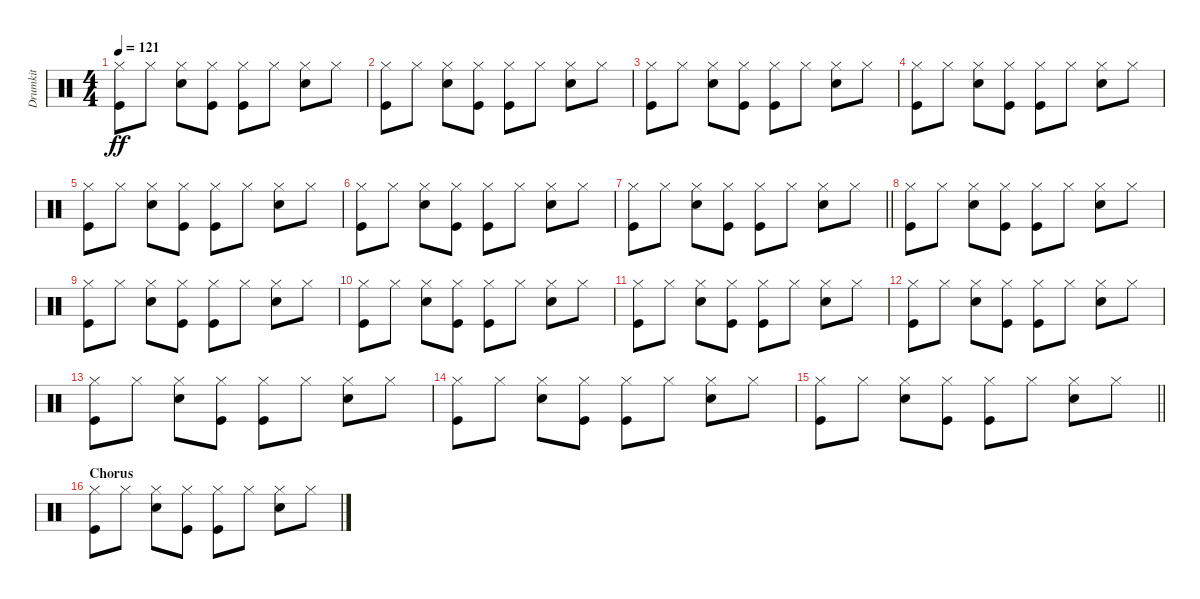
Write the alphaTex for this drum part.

\track ("Drumkit" "Drumkit") {instrument percussion}
\staff {score}
\articulation defaults
\ts (4 4)
\tempo 121
\clef neutral
\ks c
("Kick (hit)" "Hi-Hat (closed)").8{dy ff} "Hi-Hat (closed)".8 ("Hi-Hat (closed)" "Snare (hit) 2").8 ("Kick (hit)" "Hi-Hat (closed)").8 ("Hi-Hat (closed)" "Kick (hit)").8 "Hi-Hat (closed)".8 ("Hi-Hat (closed)" "Snare (hit) 2").8 "Hi-Hat (closed)".8 |
("Kick (hit)" "Hi-Hat (closed)").8 "Hi-Hat (closed)".8 ("Hi-Hat (closed)" "Snare (hit) 2").8 ("Kick (hit)" "Hi-Hat (closed)").8 ("Hi-Hat (closed)" "Kick (hit)").8 "Hi-Hat (closed)".8 ("Hi-Hat (closed)" "Snare (hit) 2").8 "Hi-Hat (closed)".8 |
("Kick (hit)" "Hi-Hat (closed)").8 "Hi-Hat (closed)".8 ("Hi-Hat (closed)" "Snare (hit) 2").8 ("Kick (hit)" "Hi-Hat (closed)").8 ("Hi-Hat (closed)" "Kick (hit)").8 "Hi-Hat (closed)".8 ("Hi-Hat (closed)" "Snare (hit) 2").8 "Hi-Hat (closed)".8 |
("Kick (hit)" "Hi-Hat (closed)").8 "Hi-Hat (closed)".8 ("Hi-Hat (closed)" "Snare (hit) 2").8 ("Kick (hit)" "Hi-Hat (closed)").8 ("Hi-Hat (closed)" "Kick (hit)").8 "Hi-Hat (closed)".8 ("Hi-Hat (closed)" "Snare (hit) 2").8 "Hi-Hat (closed)".8 |
("Kick (hit)" "Hi-Hat (closed)").8 "Hi-Hat (closed)".8 ("Hi-Hat (closed)" "Snare (hit) 2").8 ("Kick (hit)" "Hi-Hat (closed)").8 ("Hi-Hat (closed)" "Kick (hit)").8 "Hi-Hat (closed)".8 ("Hi-Hat (closed)" "Snare (hit) 2").8 "Hi-Hat (closed)".8 |
("Kick (hit)" "Hi-Hat (closed)").8 "Hi-Hat (closed)".8 ("Hi-Hat (closed)" "Snare (hit) 2").8 ("Kick (hit)" "Hi-Hat (closed)").8 ("Hi-Hat (closed)" "Kick (hit)").8 "Hi-Hat (closed)".8 ("Hi-Hat (closed)" "Snare (hit) 2").8 "Hi-Hat (closed)".8 |
\barLineRight lightlight
("Kick (hit)" "Hi-Hat (closed)").8 "Hi-Hat (closed)".8 ("Hi-Hat (closed)" "Snare (hit) 2").8 ("Kick (hit)" "Hi-Hat (closed)").8 ("Hi-Hat (closed)" "Kick (hit)").8 "Hi-Hat (closed)".8 ("Hi-Hat (closed)" "Snare (hit) 2").8 "Hi-Hat (closed)".8 |
("Kick (hit)" "Hi-Hat (closed)").8 "Hi-Hat (closed)".8 ("Hi-Hat (closed)" "Snare (hit) 2").8 ("Kick (hit)" "Hi-Hat (closed)").8 ("Hi-Hat (closed)" "Kick (hit)").8 "Hi-Hat (closed)".8 ("Hi-Hat (closed)" "Snare (hit) 2").8 "Hi-Hat (closed)".8 |
("Kick (hit)" "Hi-Hat (closed)").8 "Hi-Hat (closed)".8 ("Hi-Hat (closed)" "Snare (hit) 2").8 ("Kick (hit)" "Hi-Hat (closed)").8 ("Hi-Hat (closed)" "Kick (hit)").8 "Hi-Hat (closed)".8 ("Hi-Hat (closed)" "Snare (hit) 2").8 "Hi-Hat (closed)".8 |
("Kick (hit)" "Hi-Hat (closed)").8 "Hi-Hat (closed)".8 ("Hi-Hat (closed)" "Snare (hit) 2").8 ("Kick (hit)" "Hi-Hat (closed)").8 ("Hi-Hat (closed)" "Kick (hit)").8 "Hi-Hat (closed)".8 ("Hi-Hat (closed)" "Snare (hit) 2").8 "Hi-Hat (closed)".8 |
("Kick (hit)" "Hi-Hat (closed)").8 "Hi-Hat (closed)".8 ("Hi-Hat (closed)" "Snare (hit) 2").8 ("Kick (hit)" "Hi-Hat (closed)").8 ("Hi-Hat (closed)" "Kick (hit)").8 "Hi-Hat (closed)".8 ("Hi-Hat (closed)" "Snare (hit) 2").8 "Hi-Hat (closed)".8 |
("Kick (hit)" "Hi-Hat (closed)").8 "Hi-Hat (closed)".8 ("Hi-Hat (closed)" "Snare (hit) 2").8 ("Kick (hit)" "Hi-Hat (closed)").8 ("Hi-Hat (closed)" "Kick (hit)").8 "Hi-Hat (closed)".8 ("Hi-Hat (closed)" "Snare (hit) 2").8 "Hi-Hat (closed)".8 |
("Kick (hit)" "Hi-Hat (closed)").8 "Hi-Hat (closed)".8 ("Hi-Hat (closed)" "Snare (hit) 2").8 ("Kick (hit)" "Hi-Hat (closed)").8 ("Hi-Hat (closed)" "Kick (hit)").8 "Hi-Hat (closed)".8 ("Hi-Hat (closed)" "Snare (hit) 2").8 "Hi-Hat (closed)".8 |
("Kick (hit)" "Hi-Hat (closed)").8 "Hi-Hat (closed)".8 ("Hi-Hat (closed)" "Snare (hit) 2").8 ("Kick (hit)" "Hi-Hat (closed)").8 ("Hi-Hat (closed)" "Kick (hit)").8 "Hi-Hat (closed)".8 ("Hi-Hat (closed)" "Snare (hit) 2").8 "Hi-Hat (closed)".8 |
\barLineRight lightlight
("Kick (hit)" "Hi-Hat (closed)").8 "Hi-Hat (closed)".8 ("Hi-Hat (closed)" "Snare (hit) 2").8 ("Kick (hit)" "Hi-Hat (closed)").8 ("Hi-Hat (closed)" "Kick (hit)").8 "Hi-Hat (closed)".8 ("Hi-Hat (closed)" "Snare (hit) 2").8 "Hi-Hat (closed)".8 |
\section ("" "Chorus")
("Kick (hit)" "Hi-Hat (closed)").8 "Hi-Hat (closed)".8 ("Hi-Hat (closed)" "Snare (hit) 2").8 ("Kick (hit)" "Hi-Hat (closed)").8 ("Hi-Hat (closed)" "Kick (hit)").8 "Hi-Hat (closed)".8 ("Hi-Hat (closed)" "Snare (hit) 2").8 "Hi-Hat (closed)".8
